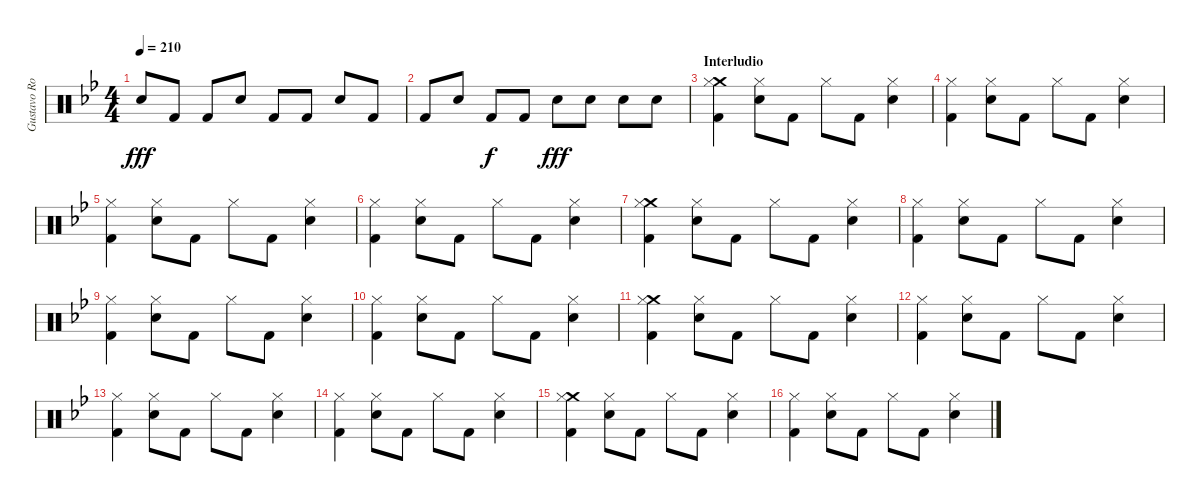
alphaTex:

\track ("Gustavo Rowek" "Gustavo Ro") {instrument percussion}
\staff {score}
\articulation defaults
\ts (4 4)
\tempo 210
\clef neutral
\ks gminor "Snare (hit) 2".8{dy fff} "Kick (hit) 2".8 "Kick (hit) 2".8 "Snare (hit) 2".8 "Kick (hit) 2".8 "Kick (hit) 2".8 "Snare (hit) 2".8 "Kick (hit) 2".8
|
"Kick (hit) 2".8 "Snare (hit) 2".8 "Kick (hit) 2".8{dy f} "Kick (hit) 2".8 "Snare (hit) 2".8{dy fff} "Snare (hit) 2".8 "Snare (hit) 2".8 "Snare (hit) 2".8 |
\section ("" "Interludio")
("Crash medium (hit)" "Hi-Hat (closed)" "Kick (hit) 2").4 ("Hi-Hat (closed)" "Snare (hit) 2").8 "Kick (hit) 2".8 "Hi-Hat (closed)".8 "Kick (hit) 2".8 ("Hi-Hat (closed)" "Snare (hit) 2").4 |
("Hi-Hat (closed)" "Kick (hit) 2").4 ("Hi-Hat (closed)" "Snare (hit) 2").8 "Kick (hit) 2".8 "Hi-Hat (closed)".8 "Kick (hit) 2".8 ("Hi-Hat (closed)" "Snare (hit) 2").4 |
("Hi-Hat (closed)" "Kick (hit) 2").4 ("Hi-Hat (closed)" "Snare (hit) 2").8 "Kick (hit) 2".8 "Hi-Hat (closed)".8 "Kick (hit) 2".8 ("Hi-Hat (closed)" "Snare (hit) 2").4 |
("Hi-Hat (closed)" "Kick (hit) 2").4 ("Hi-Hat (closed)" "Snare (hit) 2").8 "Kick (hit) 2".8 "Hi-Hat (closed)".8 "Kick (hit) 2".8 ("Hi-Hat (closed)" "Snare (hit) 2").4 |
("Crash medium (hit)" "Hi-Hat (closed)" "Kick (hit) 2").4 ("Hi-Hat (closed)" "Snare (hit) 2").8 "Kick (hit) 2".8 "Hi-Hat (closed)".8 "Kick (hit) 2".8 ("Hi-Hat (closed)" "Snare (hit) 2").4 |
("Hi-Hat (closed)" "Kick (hit) 2").4 ("Hi-Hat (closed)" "Snare (hit) 2").8 "Kick (hit) 2".8 "Hi-Hat (closed)".8 "Kick (hit) 2".8 ("Hi-Hat (closed)" "Snare (hit) 2").4 |
("Hi-Hat (closed)" "Kick (hit) 2").4 ("Hi-Hat (closed)" "Snare (hit) 2").8 "Kick (hit) 2".8 "Hi-Hat (closed)".8 "Kick (hit) 2".8 ("Hi-Hat (closed)" "Snare (hit) 2").4 |
("Hi-Hat (closed)" "Kick (hit) 2").4 ("Hi-Hat (closed)" "Snare (hit) 2").8 "Kick (hit) 2".8 "Hi-Hat (closed)".8 "Kick (hit) 2".8 ("Hi-Hat (closed)" "Snare (hit) 2").4 |
("Crash medium (hit)" "Hi-Hat (closed)" "Kick (hit) 2").4 ("Hi-Hat (closed)" "Snare (hit) 2").8 "Kick (hit) 2".8 "Hi-Hat (closed)".8 "Kick (hit) 2".8 ("Hi-Hat (closed)" "Snare (hit) 2").4 |
("Hi-Hat (closed)" "Kick (hit) 2").4 ("Hi-Hat (closed)" "Snare (hit) 2").8 "Kick (hit) 2".8 "Hi-Hat (closed)".8 "Kick (hit) 2".8 ("Hi-Hat (closed)" "Snare (hit) 2").4 |
("Hi-Hat (closed)" "Kick (hit) 2").4 ("Hi-Hat (closed)" "Snare (hit) 2").8 "Kick (hit) 2".8 "Hi-Hat (closed)".8 "Kick (hit) 2".8 ("Hi-Hat (closed)" "Snare (hit) 2").4 |
("Hi-Hat (closed)" "Kick (hit) 2").4 ("Hi-Hat (closed)" "Snare (hit) 2").8 "Kick (hit) 2".8 "Hi-Hat (closed)".8 "Kick (hit) 2".8 ("Hi-Hat (closed)" "Snare (hit) 2").4 |
("Crash medium (hit)" "Hi-Hat (closed)" "Kick (hit) 2").4 ("Hi-Hat (closed)" "Snare (hit) 2").8 "Kick (hit) 2".8 "Hi-Hat (closed)".8 "Kick (hit) 2".8 ("Hi-Hat (closed)" "Snare (hit) 2").4 |
("Hi-Hat (closed)" "Kick (hit) 2").4 ("Hi-Hat (closed)" "Snare (hit) 2").8 "Kick (hit) 2".8 "Hi-Hat (closed)".8 "Kick (hit) 2".8 ("Hi-Hat (closed)" "Snare (hit) 2").4
